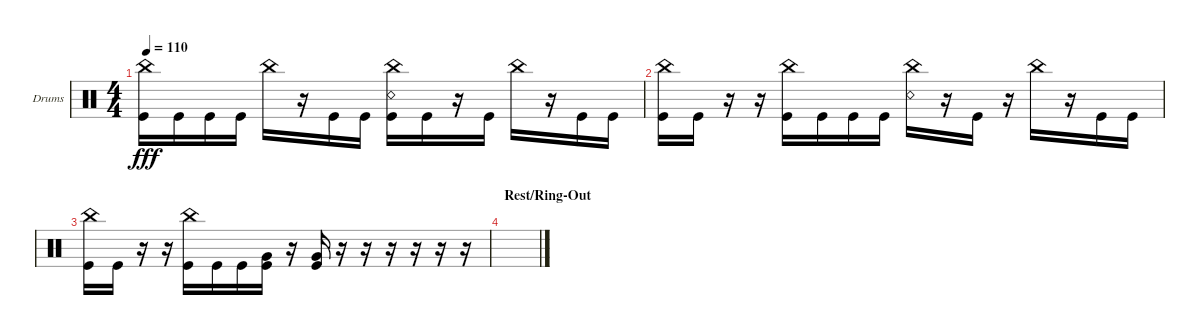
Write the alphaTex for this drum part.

\defaultSystemsLayout 4
\bracketExtendMode groupsimilarinstruments
\firstSystemTrackNameOrientation horizontal
\otherSystemsTrackNameOrientation horizontal
\track ("Chris Khoury" "Drums") {instrument percussion}
\staff {score}
\articulation defaults
\ts (4 4)
\tempo 110
\clef neutral
\ks c
("China (hit)" "Kick (hit)").16{dy fff} "Kick (hit)".16 "Kick (hit)".16 "Kick (hit)".16 "China (hit)".16 r.16 "Kick (hit)".16 "Kick (hit)".16 ("China (hit)" "Snare (rim shot)" "Kick (hit)").16 "Kick (hit)".16 r.16 "Kick (hit)".16 "China (hit)".16 r.16 "Kick (hit)".16 "Kick (hit)".16 |
("China (hit)" "Kick (hit)").16 "Kick (hit)".16 r.16 r.16 ("China (hit)" "Kick (hit)").16 "Kick (hit)".16 "Kick (hit)".16 "Kick (hit)".16 ("China (hit)" "Snare (rim shot)").16 r.16 "Kick (hit)".16 r.16 "China (hit)".16 r.16 "Kick (hit)".16 "Kick (hit)".16 |
("China (hit)" "Kick (hit)").16 "Kick (hit)".16 r.16 r.16 ("China (hit)" "Kick (hit)").16 "Kick (hit)".16 "Kick (hit)".16 ("Very Low Tom (hit)" "Kick (hit)").16 r.16 ("Very Low Tom (hit)" "Kick (hit)").16 r.16 r.16 r.16 r.16 r.16 r.16 |
\section ("" "Rest/Ring-Out")
